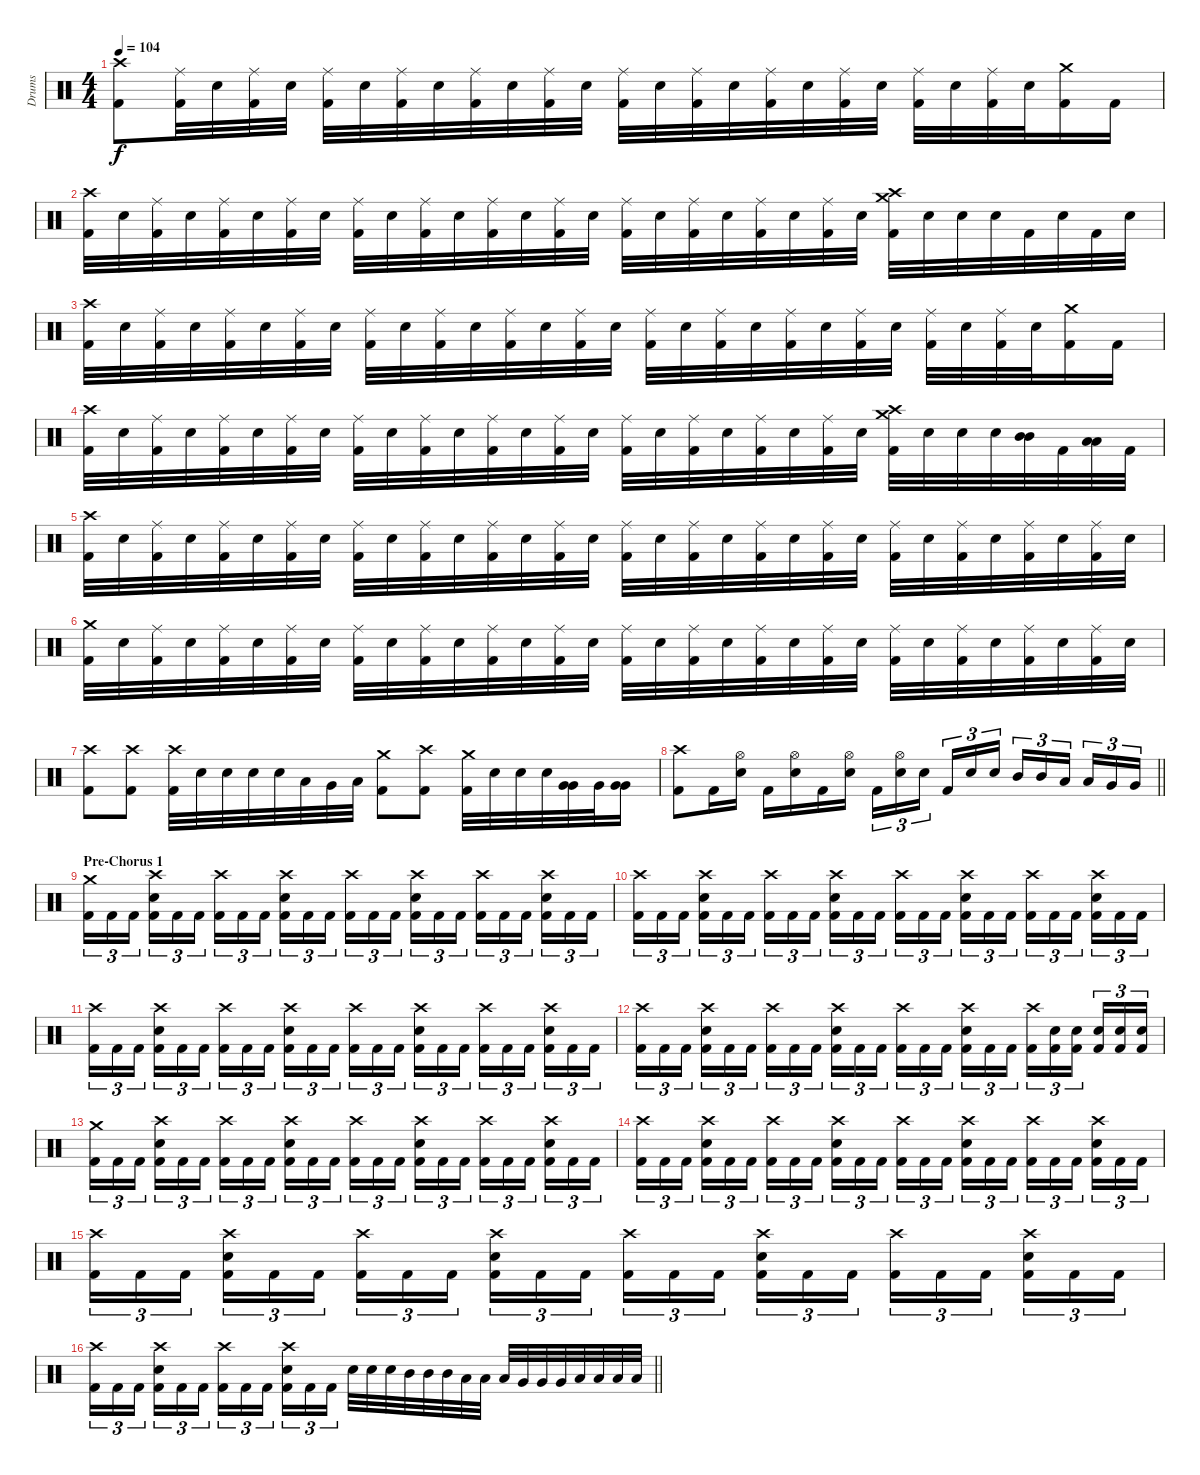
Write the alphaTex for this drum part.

\track ("Drums" "Drums") {instrument percussion}
\staff {score}
\articulation defaults
\ts (4 4)
\tempo 104
\clef neutral
\ks c
("Crash high (hit)" "Kick (hit) 2").8{dy f} ("Ride (middle)" "Kick (hit) 2").32 "Electric Snare (hit)".32 ("Ride (middle)" "Kick (hit) 2").32 "Electric Snare (hit)".32 ("Ride (middle)" "Kick (hit) 2").32 "Electric Snare (hit)".32 ("Ride (middle)" "Kick (hit) 2").32 "Electric Snare (hit)".32 ("Ride (middle)" "Kick (hit) 2").32 "Electric Snare (hit)".32 ("Ride (middle)" "Kick (hit) 2").32 "Electric Snare (hit)".32 ("Ride (middle)" "Kick (hit) 2").32 "Electric Snare (hit)".32 ("Ride (middle)" "Kick (hit) 2").32 "Electric Snare (hit)".32 ("Ride (middle)" "Kick (hit) 2").32 "Electric Snare (hit)".32 ("Ride (middle)" "Kick (hit) 2").32 "Electric Snare (hit)".32 ("Ride (middle)" "Kick (hit) 2").32 "Electric Snare (hit)".32 ("Ride (middle)" "Kick (hit) 2").32 "Electric Snare (hit)".32 ("Crash medium (hit)" "Kick (hit) 2").16 "Kick (hit) 2".16 |
("Crash high (hit)" "Kick (hit) 2").32 "Electric Snare (hit)".32 ("Ride (middle)" "Kick (hit) 2").32 "Electric Snare (hit)".32 ("Ride (middle)" "Kick (hit) 2").32 "Electric Snare (hit)".32 ("Ride (middle)" "Kick (hit) 2").32 "Electric Snare (hit)".32 ("Ride (middle)" "Kick (hit) 2").32 "Electric Snare (hit)".32 ("Ride (middle)" "Kick (hit) 2").32 "Electric Snare (hit)".32 ("Ride (middle)" "Kick (hit) 2").32 "Electric Snare (hit)".32 ("Ride (middle)" "Kick (hit) 2").32 "Electric Snare (hit)".32 ("Ride (middle)" "Kick (hit) 2").32 "Electric Snare (hit)".32 ("Ride (middle)" "Kick (hit) 2").32 "Electric Snare (hit)".32 ("Ride (middle)" "Kick (hit) 2").32 "Electric Snare (hit)".32 ("Ride (middle)" "Kick (hit) 2").32 "Electric Snare (hit)".32 ("Crash medium (hit)" "Crash high (hit)" "Kick (hit) 2").32 "Electric Snare (hit)".32 "Electric Snare (hit)".32 "Electric Snare (hit)".32 "Kick (hit) 2".32 "Electric Snare (hit)".32 "Kick (hit) 2".32 "Electric Snare (hit)".32 |
("Crash high (hit)" "Kick (hit) 2").32 "Electric Snare (hit)".32 ("Ride (middle)" "Kick (hit) 2").32 "Electric Snare (hit)".32 ("Ride (middle)" "Kick (hit) 2").32 "Electric Snare (hit)".32 ("Ride (middle)" "Kick (hit) 2").32 "Electric Snare (hit)".32 ("Ride (middle)" "Kick (hit) 2").32 "Electric Snare (hit)".32 ("Ride (middle)" "Kick (hit) 2").32 "Electric Snare (hit)".32 ("Ride (middle)" "Kick (hit) 2").32 "Electric Snare (hit)".32 ("Ride (middle)" "Kick (hit) 2").32 "Electric Snare (hit)".32 ("Ride (middle)" "Kick (hit) 2").32 "Electric Snare (hit)".32 ("Ride (middle)" "Kick (hit) 2").32 "Electric Snare (hit)".32 ("Ride (middle)" "Kick (hit) 2").32 "Electric Snare (hit)".32 ("Ride (middle)" "Kick (hit) 2").32 "Electric Snare (hit)".32 ("Ride (middle)" "Kick (hit) 2").32 "Electric Snare (hit)".32 ("Ride (middle)" "Kick (hit) 2").32 "Electric Snare (hit)".32 ("Crash medium (hit)" "Kick (hit) 2").16 "Kick (hit) 2".16 |
("Crash high (hit)" "Kick (hit) 2").32 "Electric Snare (hit)".32 ("Ride (middle)" "Kick (hit) 2").32 "Electric Snare (hit)".32 ("Ride (middle)" "Kick (hit) 2").32 "Electric Snare (hit)".32 ("Ride (middle)" "Kick (hit) 2").32 "Electric Snare (hit)".32 ("Ride (middle)" "Kick (hit) 2").32 "Electric Snare (hit)".32 ("Ride (middle)" "Kick (hit) 2").32 "Electric Snare (hit)".32 ("Ride (middle)" "Kick (hit) 2").32 "Electric Snare (hit)".32 ("Ride (middle)" "Kick (hit) 2").32 "Electric Snare (hit)".32 ("Ride (middle)" "Kick (hit) 2").32 "Electric Snare (hit)".32 ("Ride (middle)" "Kick (hit) 2").32 "Electric Snare (hit)".32 ("Ride (middle)" "Kick (hit) 2").32 "Electric Snare (hit)".32 ("Ride (middle)" "Kick (hit) 2").32 "Electric Snare (hit)".32 ("Crash medium (hit)" "Crash high (hit)" "Kick (hit) 2").32 "Electric Snare (hit)".32 "Electric Snare (hit)".32 "Electric Snare (hit)".32 ("Mid Tom (hit)" "Mid Tom (hit)").32{bu 60} "Kick (hit) 2".32 ("Low Tom (hit)" "Low Tom (hit)").32{bu 60} "Kick (hit) 2".32 |
("Crash high (hit)" "Kick (hit) 2").32 "Electric Snare (hit)".32 ("Ride (middle)" "Kick (hit) 2").32 "Electric Snare (hit)".32 ("Ride (middle)" "Kick (hit) 2").32 "Electric Snare (hit)".32 ("Ride (middle)" "Kick (hit) 2").32 "Electric Snare (hit)".32 ("Ride (middle)" "Kick (hit) 2").32 "Electric Snare (hit)".32 ("Ride (middle)" "Kick (hit) 2").32 "Electric Snare (hit)".32 ("Ride (middle)" "Kick (hit) 2").32 "Electric Snare (hit)".32 ("Ride (middle)" "Kick (hit) 2").32 "Electric Snare (hit)".32 ("Ride (middle)" "Kick (hit) 2").32 "Electric Snare (hit)".32 ("Ride (middle)" "Kick (hit) 2").32 "Electric Snare (hit)".32 ("Ride (middle)" "Kick (hit) 2").32 "Electric Snare (hit)".32 ("Ride (middle)" "Kick (hit) 2").32 "Electric Snare (hit)".32 ("Ride (middle)" "Kick (hit) 2").32 "Electric Snare (hit)".32 ("Ride (middle)" "Kick (hit) 2").32 "Electric Snare (hit)".32 ("Ride (middle)" "Kick (hit) 2").32 "Electric Snare (hit)".32 ("Ride (middle)" "Kick (hit) 2").32 "Electric Snare (hit)".32 |
("Crash medium (hit)" "Kick (hit) 2").32 "Electric Snare (hit)".32 ("Ride (middle)" "Kick (hit) 2").32 "Electric Snare (hit)".32 ("Ride (middle)" "Kick (hit) 2").32 "Electric Snare (hit)".32 ("Ride (middle)" "Kick (hit) 2").32 "Electric Snare (hit)".32 ("Ride (middle)" "Kick (hit) 2").32 "Electric Snare (hit)".32 ("Ride (middle)" "Kick (hit) 2").32 "Electric Snare (hit)".32 ("Ride (middle)" "Kick (hit) 2").32 "Electric Snare (hit)".32 ("Ride (middle)" "Kick (hit) 2").32 "Electric Snare (hit)".32 ("Ride (middle)" "Kick (hit) 2").32 "Electric Snare (hit)".32 ("Ride (middle)" "Kick (hit) 2").32 "Electric Snare (hit)".32 ("Ride (middle)" "Kick (hit) 2").32 "Electric Snare (hit)".32 ("Ride (middle)" "Kick (hit) 2").32 "Electric Snare (hit)".32 ("Ride (middle)" "Kick (hit) 2").32 "Electric Snare (hit)".32 ("Ride (middle)" "Kick (hit) 2").32 "Electric Snare (hit)".32 ("Ride (middle)" "Kick (hit) 2").32 "Electric Snare (hit)".32 ("Ride (middle)" "Kick (hit) 2").32 "Electric Snare (hit)".32 |
("Crash high (hit)" "Kick (hit) 2").8 ("Crash high (hit)" "Kick (hit) 2").8 ("Crash high (hit)" "Kick (hit) 2").32 "Electric Snare (hit)".32 "Electric Snare (hit)".32 "Electric Snare (hit)".32 "Electric Snare (hit)".32 "Low Tom (hit)".32 "Very Low Tom (hit)".32 "Low Floor Tom (hit)".32 ("Crash medium (hit)" "Kick (hit) 2").8 ("Crash high (hit)" "Kick (hit) 2").8 ("Crash medium (hit)" "Kick (hit) 2").32 "Electric Snare (hit)".32 "Electric Snare (hit)".32 "Electric Snare (hit)".32 ("Very Low Tom (hit)" "Very Low Tom (hit)").32{bu 60} "Very Low Tom (hit)".32 ("Very Low Tom (hit)" "Very Low Tom (hit)").16{bu 60} |
\barLineRight lightlight
("Crash high (hit)" "Kick (hit) 2").8 "Kick (hit) 2".16 ("Hi-Hat (open)" "Electric Snare (hit)").16 "Kick (hit) 2".16 ("Hi-Hat (open)" "Electric Snare (hit)").16 "Kick (hit) 2".16 ("Hi-Hat (open)" "Electric Snare (hit)").16 "Kick (hit) 2".16{tu (3 2)} ("Hi-Hat (open)" "Electric Snare (hit)").16{tu (3 2)} "Electric Snare (hit)".16{tu (3 2) beam splitsecondary} "Kick (hit) 2".16{tu (3 2)} "Electric Snare (hit)".16{tu (3 2)} "Electric Snare (hit)".16{tu (3 2)} "Mid Tom (hit)".16{tu (3 2)} "Mid Tom (hit)".16{tu (3 2)} "Low Tom (hit)".16{tu (3 2) beam splitsecondary} "Low Tom (hit)".16{tu (3 2)} "Very Low Tom (hit)".16{tu (3 2)} "Very Low Tom (hit)".16{tu (3 2)} |
\section ("" "Pre-Chorus 1")
("Crash medium (hit)" "Kick (hit) 2").16{tu (3 2)} "Kick (hit) 2".16{tu (3 2)} "Kick (hit) 2".16{tu (3 2) beam splitsecondary} ("Crash high (hit)" "Electric Snare (hit)" "Kick (hit) 2").16{tu (3 2)} "Kick (hit) 2".16{tu (3 2)} "Kick (hit) 2".16{tu (3 2)} ("Crash high (hit)" "Kick (hit) 2").16{tu (3 2)} "Kick (hit) 2".16{tu (3 2)} "Kick (hit) 2".16{tu (3 2) beam splitsecondary} ("Crash high (hit)" "Electric Snare (hit)" "Kick (hit) 2").16{tu (3 2)} "Kick (hit) 2".16{tu (3 2)} "Kick (hit) 2".16{tu (3 2)} ("Crash high (hit)" "Kick (hit) 2").16{tu (3 2)} "Kick (hit) 2".16{tu (3 2)} "Kick (hit) 2".16{tu (3 2) beam splitsecondary} ("Crash high (hit)" "Electric Snare (hit)" "Kick (hit) 2").16{tu (3 2)} "Kick (hit) 2".16{tu (3 2)} "Kick (hit) 2".16{tu (3 2)} ("Crash high (hit)" "Kick (hit) 2").16{tu (3 2)} "Kick (hit) 2".16{tu (3 2)} "Kick (hit) 2".16{tu (3 2) beam splitsecondary} ("Crash high (hit)" "Electric Snare (hit)" "Kick (hit) 2").16{tu (3 2)} "Kick (hit) 2".16{tu (3 2)} "Kick (hit) 2".16{tu (3 2)} |
("Crash high (hit)" "Kick (hit) 2").16{tu (3 2)} "Kick (hit) 2".16{tu (3 2)} "Kick (hit) 2".16{tu (3 2) beam splitsecondary} ("Crash high (hit)" "Electric Snare (hit)" "Kick (hit) 2").16{tu (3 2)} "Kick (hit) 2".16{tu (3 2)} "Kick (hit) 2".16{tu (3 2)} ("Crash high (hit)" "Kick (hit) 2").16{tu (3 2)} "Kick (hit) 2".16{tu (3 2)} "Kick (hit) 2".16{tu (3 2) beam splitsecondary} ("Crash high (hit)" "Electric Snare (hit)" "Kick (hit) 2").16{tu (3 2)} "Kick (hit) 2".16{tu (3 2)} "Kick (hit) 2".16{tu (3 2)} ("Crash high (hit)" "Kick (hit) 2").16{tu (3 2)} "Kick (hit) 2".16{tu (3 2)} "Kick (hit) 2".16{tu (3 2) beam splitsecondary} ("Crash high (hit)" "Electric Snare (hit)" "Kick (hit) 2").16{tu (3 2)} "Kick (hit) 2".16{tu (3 2)} "Kick (hit) 2".16{tu (3 2)} ("Crash high (hit)" "Kick (hit) 2").16{tu (3 2)} "Kick (hit) 2".16{tu (3 2)} "Kick (hit) 2".16{tu (3 2) beam splitsecondary} ("Crash high (hit)" "Electric Snare (hit)" "Kick (hit) 2").16{tu (3 2)} "Kick (hit) 2".16{tu (3 2)} "Kick (hit) 2".16{tu (3 2)} |
("Crash high (hit)" "Kick (hit) 2").16{tu (3 2)} "Kick (hit) 2".16{tu (3 2)} "Kick (hit) 2".16{tu (3 2) beam splitsecondary} ("Crash high (hit)" "Electric Snare (hit)" "Kick (hit) 2").16{tu (3 2)} "Kick (hit) 2".16{tu (3 2)} "Kick (hit) 2".16{tu (3 2)} ("Crash high (hit)" "Kick (hit) 2").16{tu (3 2)} "Kick (hit) 2".16{tu (3 2)} "Kick (hit) 2".16{tu (3 2) beam splitsecondary} ("Crash high (hit)" "Electric Snare (hit)" "Kick (hit) 2").16{tu (3 2)} "Kick (hit) 2".16{tu (3 2)} "Kick (hit) 2".16{tu (3 2)} ("Crash high (hit)" "Kick (hit) 2").16{tu (3 2)} "Kick (hit) 2".16{tu (3 2)} "Kick (hit) 2".16{tu (3 2) beam splitsecondary} ("Crash high (hit)" "Electric Snare (hit)" "Kick (hit) 2").16{tu (3 2)} "Kick (hit) 2".16{tu (3 2)} "Kick (hit) 2".16{tu (3 2)} ("Crash high (hit)" "Kick (hit) 2").16{tu (3 2)} "Kick (hit) 2".16{tu (3 2)} "Kick (hit) 2".16{tu (3 2) beam splitsecondary} ("Crash high (hit)" "Electric Snare (hit)" "Kick (hit) 2").16{tu (3 2)} "Kick (hit) 2".16{tu (3 2)} "Kick (hit) 2".16{tu (3 2)} |
("Crash high (hit)" "Kick (hit) 2").16{tu (3 2)} "Kick (hit) 2".16{tu (3 2)} "Kick (hit) 2".16{tu (3 2) beam splitsecondary} ("Crash high (hit)" "Electric Snare (hit)" "Kick (hit) 2").16{tu (3 2)} "Kick (hit) 2".16{tu (3 2)} "Kick (hit) 2".16{tu (3 2)} ("Crash high (hit)" "Kick (hit) 2").16{tu (3 2)} "Kick (hit) 2".16{tu (3 2)} "Kick (hit) 2".16{tu (3 2) beam splitsecondary} ("Crash high (hit)" "Electric Snare (hit)" "Kick (hit) 2").16{tu (3 2)} "Kick (hit) 2".16{tu (3 2)} "Kick (hit) 2".16{tu (3 2)} ("Crash high (hit)" "Kick (hit) 2").16{tu (3 2)} "Kick (hit) 2".16{tu (3 2)} "Kick (hit) 2".16{tu (3 2) beam splitsecondary} ("Crash high (hit)" "Electric Snare (hit)" "Kick (hit) 2").16{tu (3 2)} "Kick (hit) 2".16{tu (3 2)} "Kick (hit) 2".16{tu (3 2)} ("Crash high (hit)" "Kick (hit) 2").16{tu (3 2)} ("Electric Snare (hit)" "Kick (hit) 2").16{tu (3 2)} ("Electric Snare (hit)" "Kick (hit) 2").16{tu (3 2) beam splitsecondary} ("Electric Snare (hit)" "Kick (hit) 2").16{tu (3 2)} ("Electric Snare (hit)" "Kick (hit) 2").16{tu (3 2)} ("Electric Snare (hit)" "Kick (hit) 2").16{tu (3 2)} |
("Crash medium (hit)" "Kick (hit) 2").16{tu (3 2)} "Kick (hit) 2".16{tu (3 2)} "Kick (hit) 2".16{tu (3 2) beam splitsecondary} ("Crash high (hit)" "Electric Snare (hit)" "Kick (hit) 2").16{tu (3 2)} "Kick (hit) 2".16{tu (3 2)} "Kick (hit) 2".16{tu (3 2)} ("Crash high (hit)" "Kick (hit) 2").16{tu (3 2)} "Kick (hit) 2".16{tu (3 2)} "Kick (hit) 2".16{tu (3 2) beam splitsecondary} ("Crash high (hit)" "Electric Snare (hit)" "Kick (hit) 2").16{tu (3 2)} "Kick (hit) 2".16{tu (3 2)} "Kick (hit) 2".16{tu (3 2)} ("Crash high (hit)" "Kick (hit) 2").16{tu (3 2)} "Kick (hit) 2".16{tu (3 2)} "Kick (hit) 2".16{tu (3 2) beam splitsecondary} ("Crash high (hit)" "Electric Snare (hit)" "Kick (hit) 2").16{tu (3 2)} "Kick (hit) 2".16{tu (3 2)} "Kick (hit) 2".16{tu (3 2)} ("Crash high (hit)" "Kick (hit) 2").16{tu (3 2)} "Kick (hit) 2".16{tu (3 2)} "Kick (hit) 2".16{tu (3 2) beam splitsecondary} ("Crash high (hit)" "Electric Snare (hit)" "Kick (hit) 2").16{tu (3 2)} "Kick (hit) 2".16{tu (3 2)} "Kick (hit) 2".16{tu (3 2)} |
("Crash high (hit)" "Kick (hit) 2").16{tu (3 2)} "Kick (hit) 2".16{tu (3 2)} "Kick (hit) 2".16{tu (3 2) beam splitsecondary} ("Crash high (hit)" "Electric Snare (hit)" "Kick (hit) 2").16{tu (3 2)} "Kick (hit) 2".16{tu (3 2)} "Kick (hit) 2".16{tu (3 2)} ("Crash high (hit)" "Kick (hit) 2").16{tu (3 2)} "Kick (hit) 2".16{tu (3 2)} "Kick (hit) 2".16{tu (3 2) beam splitsecondary} ("Crash high (hit)" "Electric Snare (hit)" "Kick (hit) 2").16{tu (3 2)} "Kick (hit) 2".16{tu (3 2)} "Kick (hit) 2".16{tu (3 2)} ("Crash high (hit)" "Kick (hit) 2").16{tu (3 2)} "Kick (hit) 2".16{tu (3 2)} "Kick (hit) 2".16{tu (3 2) beam splitsecondary} ("Crash high (hit)" "Electric Snare (hit)" "Kick (hit) 2").16{tu (3 2)} "Kick (hit) 2".16{tu (3 2)} "Kick (hit) 2".16{tu (3 2)} ("Crash high (hit)" "Kick (hit) 2").16{tu (3 2)} "Kick (hit) 2".16{tu (3 2)} "Kick (hit) 2".16{tu (3 2) beam splitsecondary} ("Crash high (hit)" "Electric Snare (hit)" "Kick (hit) 2").16{tu (3 2)} "Kick (hit) 2".16{tu (3 2)} "Kick (hit) 2".16{tu (3 2)} |
("Crash high (hit)" "Kick (hit) 2").16{tu (3 2)} "Kick (hit) 2".16{tu (3 2)} "Kick (hit) 2".16{tu (3 2) beam splitsecondary} ("Crash high (hit)" "Electric Snare (hit)" "Kick (hit) 2").16{tu (3 2)} "Kick (hit) 2".16{tu (3 2)} "Kick (hit) 2".16{tu (3 2)} ("Crash high (hit)" "Kick (hit) 2").16{tu (3 2)} "Kick (hit) 2".16{tu (3 2)} "Kick (hit) 2".16{tu (3 2) beam splitsecondary} ("Crash high (hit)" "Electric Snare (hit)" "Kick (hit) 2").16{tu (3 2)} "Kick (hit) 2".16{tu (3 2)} "Kick (hit) 2".16{tu (3 2)} ("Crash high (hit)" "Kick (hit) 2").16{tu (3 2)} "Kick (hit) 2".16{tu (3 2)} "Kick (hit) 2".16{tu (3 2) beam splitsecondary} ("Crash high (hit)" "Electric Snare (hit)" "Kick (hit) 2").16{tu (3 2)} "Kick (hit) 2".16{tu (3 2)} "Kick (hit) 2".16{tu (3 2)} ("Crash high (hit)" "Kick (hit) 2").16{tu (3 2)} "Kick (hit) 2".16{tu (3 2)} "Kick (hit) 2".16{tu (3 2) beam splitsecondary} ("Crash high (hit)" "Electric Snare (hit)" "Kick (hit) 2").16{tu (3 2)} "Kick (hit) 2".16{tu (3 2)} "Kick (hit) 2".16{tu (3 2)} |
\barLineRight lightlight
("Crash high (hit)" "Kick (hit) 2").16{tu (3 2)} "Kick (hit) 2".16{tu (3 2)} "Kick (hit) 2".16{tu (3 2) beam splitsecondary} ("Crash high (hit)" "Electric Snare (hit)" "Kick (hit) 2").16{tu (3 2)} "Kick (hit) 2".16{tu (3 2)} "Kick (hit) 2".16{tu (3 2)} ("Crash high (hit)" "Kick (hit) 2").16{tu (3 2)} "Kick (hit) 2".16{tu (3 2)} "Kick (hit) 2".16{tu (3 2) beam splitsecondary} ("Crash high (hit)" "Electric Snare (hit)" "Kick (hit) 2").16{tu (3 2)} "Kick (hit) 2".16{tu (3 2)} "Kick (hit) 2".16{tu (3 2)} "Electric Snare (hit)".32 "Electric Snare (hit)".32 "Electric Snare (hit)".32 "Mid Tom (hit)".32 "Mid Tom (hit)".32 "Mid Tom (hit)".32 "Low Tom (hit)".32 "Low Tom (hit)".32 "Low Tom (hit)".32 "Very Low Tom (hit)".32 "Very Low Tom (hit)".32 "Very Low Tom (hit)".32 "Low Floor Tom (hit)".32 "Low Floor Tom (hit)".32 "Low Floor Tom (hit)".32 "Low Floor Tom (hit)".32
